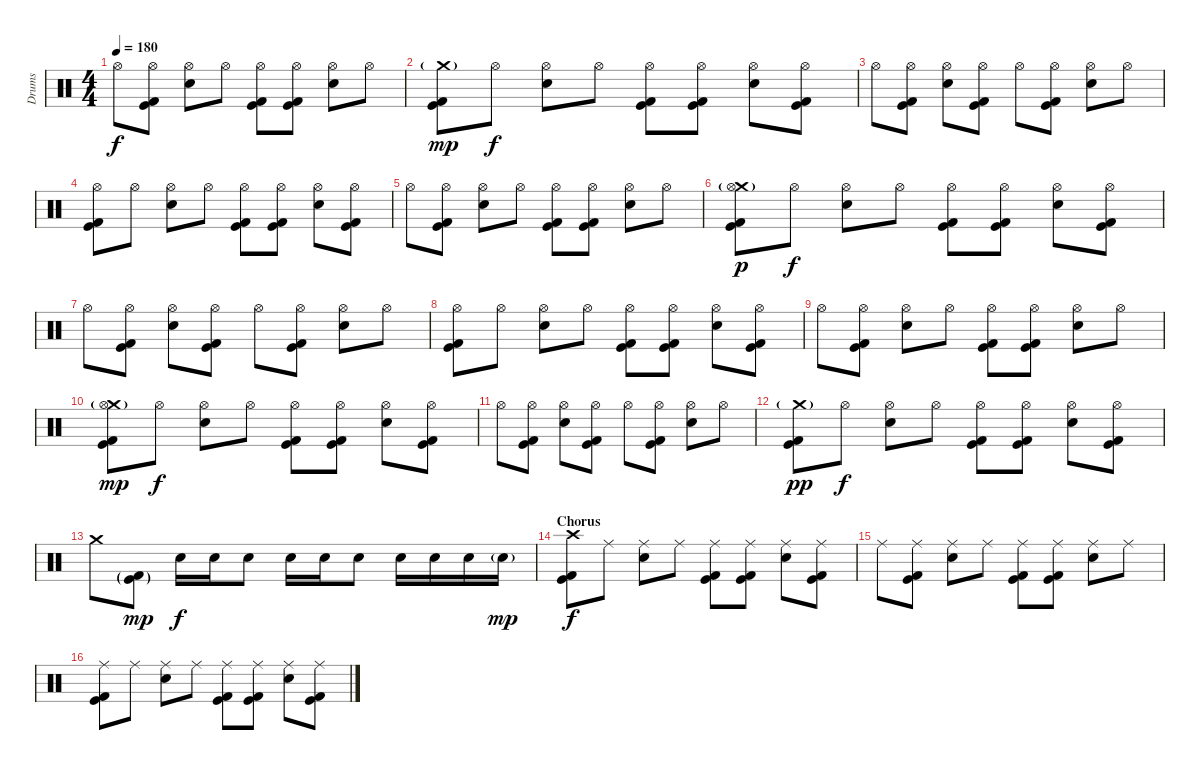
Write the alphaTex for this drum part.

\track ("Drums" "Drums") {instrument percussion}
\staff {score}
\articulation defaults
\ts (4 4)
\tempo 180
\clef neutral
\ks c "Hi-Hat (open)".8{dy f}
("Hi-Hat (open)" "Kick (hit) 2" "Kick (hit)").8 ("Hi-Hat (open)" "Electric Snare (hit)").8 "Hi-Hat (open)".8 ("Hi-Hat (open)" "Kick (hit) 2" "Kick (hit)").8 ("Hi-Hat (open)" "Kick (hit) 2" "Kick (hit)").8 ("Hi-Hat (open)" "Electric Snare (hit)").8 "Hi-Hat (open)".8 |
("Crash medium (hit)"{g} "Kick (hit) 2" "Kick (hit)").8{dy mp} "Hi-Hat (open)".8{dy f} ("Hi-Hat (open)" "Electric Snare (hit)").8 "Hi-Hat (open)".8 ("Hi-Hat (open)" "Kick (hit) 2" "Kick (hit)").8 ("Hi-Hat (open)" "Kick (hit) 2" "Kick (hit)").8 ("Hi-Hat (open)" "Electric Snare (hit)").8 ("Hi-Hat (open)" "Kick (hit) 2" "Kick (hit)").8 |
"Hi-Hat (open)".8 ("Hi-Hat (open)" "Kick (hit) 2" "Kick (hit)").8 ("Hi-Hat (open)" "Electric Snare (hit)").8 ("Hi-Hat (open)" "Kick (hit) 2" "Kick (hit)").8 "Hi-Hat (open)".8 ("Hi-Hat (open)" "Kick (hit) 2" "Kick (hit)").8 ("Hi-Hat (open)" "Electric Snare (hit)").8 "Hi-Hat (open)".8 |
("Hi-Hat (open)" "Kick (hit) 2" "Kick (hit)").8 "Hi-Hat (open)".8 ("Hi-Hat (open)" "Electric Snare (hit)").8 "Hi-Hat (open)".8 ("Hi-Hat (open)" "Kick (hit) 2" "Kick (hit)").8 ("Hi-Hat (open)" "Kick (hit) 2" "Kick (hit)").8 ("Hi-Hat (open)" "Electric Snare (hit)").8 ("Hi-Hat (open)" "Kick (hit) 2" "Kick (hit)").8 |
"Hi-Hat (open)".8 ("Hi-Hat (open)" "Kick (hit) 2" "Kick (hit)").8 ("Hi-Hat (open)" "Electric Snare (hit)").8 "Hi-Hat (open)".8 ("Hi-Hat (open)" "Kick (hit) 2" "Kick (hit)").8 ("Hi-Hat (open)" "Kick (hit) 2" "Kick (hit)").8 ("Hi-Hat (open)" "Electric Snare (hit)").8 "Hi-Hat (open)".8 |
("Crash medium (hit)"{g} "Hi-Hat (open)" "Kick (hit) 2" "Kick (hit)").8{dy p} "Hi-Hat (open)".8{dy f} ("Hi-Hat (open)" "Electric Snare (hit)").8 "Hi-Hat (open)".8 ("Hi-Hat (open)" "Kick (hit) 2" "Kick (hit)").8 ("Hi-Hat (open)" "Kick (hit) 2" "Kick (hit)").8 ("Hi-Hat (open)" "Electric Snare (hit)").8 ("Hi-Hat (open)" "Kick (hit) 2" "Kick (hit)").8 |
"Hi-Hat (open)".8 ("Hi-Hat (open)" "Kick (hit) 2" "Kick (hit)").8 ("Hi-Hat (open)" "Electric Snare (hit)").8 ("Hi-Hat (open)" "Kick (hit) 2" "Kick (hit)").8 "Hi-Hat (open)".8 ("Hi-Hat (open)" "Kick (hit) 2" "Kick (hit)").8 ("Hi-Hat (open)" "Electric Snare (hit)").8 "Hi-Hat (open)".8 |
("Hi-Hat (open)" "Kick (hit) 2" "Kick (hit)").8 "Hi-Hat (open)".8 ("Hi-Hat (open)" "Electric Snare (hit)").8 "Hi-Hat (open)".8 ("Hi-Hat (open)" "Kick (hit) 2" "Kick (hit)").8 ("Hi-Hat (open)" "Kick (hit) 2" "Kick (hit)").8 ("Hi-Hat (open)" "Electric Snare (hit)").8 ("Hi-Hat (open)" "Kick (hit) 2" "Kick (hit)").8 |
"Hi-Hat (open)".8 ("Hi-Hat (open)" "Kick (hit) 2" "Kick (hit)").8 ("Hi-Hat (open)" "Electric Snare (hit)").8 "Hi-Hat (open)".8 ("Hi-Hat (open)" "Kick (hit) 2" "Kick (hit)").8 ("Hi-Hat (open)" "Kick (hit) 2" "Kick (hit)").8 ("Hi-Hat (open)" "Electric Snare (hit)").8 "Hi-Hat (open)".8 |
("Crash medium (hit)"{g} "Hi-Hat (open)"{g} "Kick (hit) 2" "Kick (hit)").8{dy mp} "Hi-Hat (open)".8{dy f} ("Hi-Hat (open)" "Electric Snare (hit)").8 "Hi-Hat (open)".8 ("Hi-Hat (open)" "Kick (hit) 2" "Kick (hit)").8 ("Hi-Hat (open)" "Kick (hit) 2" "Kick (hit)").8 ("Hi-Hat (open)" "Electric Snare (hit)").8 ("Hi-Hat (open)" "Kick (hit) 2" "Kick (hit)").8 |
"Hi-Hat (open)".8 ("Hi-Hat (open)" "Kick (hit) 2" "Kick (hit)").8 ("Hi-Hat (open)" "Electric Snare (hit)").8 ("Hi-Hat (open)" "Kick (hit) 2" "Kick (hit)").8 "Hi-Hat (open)".8 ("Hi-Hat (open)" "Kick (hit) 2" "Kick (hit)").8 ("Hi-Hat (open)" "Electric Snare (hit)").8 "Hi-Hat (open)".8 |
("Crash medium (hit)"{g} "Kick (hit) 2" "Kick (hit)").8{dy pp} "Hi-Hat (open)".8{dy f} ("Hi-Hat (open)" "Electric Snare (hit)").8 "Hi-Hat (open)".8 ("Hi-Hat (open)" "Kick (hit) 2" "Kick (hit)").8 ("Hi-Hat (open)" "Kick (hit) 2" "Kick (hit)").8 ("Hi-Hat (open)" "Electric Snare (hit)").8 ("Hi-Hat (open)" "Kick (hit) 2" "Kick (hit)").8 |
"Crash medium (hit)".8 ("Kick (hit) 2"{g} "Kick (hit)"{g}).8{dy mp} "Electric Snare (hit)".16{dy f} "Electric Snare (hit)".16 "Electric Snare (hit)".8 "Electric Snare (hit)".16 "Electric Snare (hit)".16 "Electric Snare (hit)".8 "Electric Snare (hit)".16 "Electric Snare (hit)".16 "Electric Snare (hit)".16 "Electric Snare (hit)"{g}.16{dy mp} |
\section ("" "Chorus")
("Crash high (hit)" "Kick (hit) 2" "Kick (hit)").8{dy f} "Ride (middle)".8 ("Ride (middle)" "Electric Snare (hit)").8 "Ride (middle)".8 ("Ride (middle)" "Kick (hit) 2" "Kick (hit)").8 ("Ride (middle)" "Kick (hit) 2" "Kick (hit)").8 ("Ride (middle)" "Electric Snare (hit)").8 ("Ride (middle)" "Kick (hit) 2" "Kick (hit)").8 |
"Ride (middle)".8 ("Ride (middle)" "Kick (hit) 2" "Kick (hit)").8 ("Ride (middle)" "Electric Snare (hit)").8 "Ride (middle)".8 ("Ride (middle)" "Kick (hit) 2" "Kick (hit)").8 ("Ride (middle)" "Kick (hit) 2" "Kick (hit)").8 ("Ride (middle)" "Electric Snare (hit)").8 "Ride (middle)".8 |
("Ride (middle)" "Kick (hit) 2" "Kick (hit)").8 "Ride (middle)".8 ("Ride (middle)" "Electric Snare (hit)").8 "Ride (middle)".8 ("Ride (middle)" "Kick (hit) 2" "Kick (hit)").8 ("Ride (middle)" "Kick (hit) 2" "Kick (hit)").8 ("Ride (middle)" "Electric Snare (hit)").8 ("Ride (middle)" "Kick (hit) 2" "Kick (hit)").8
